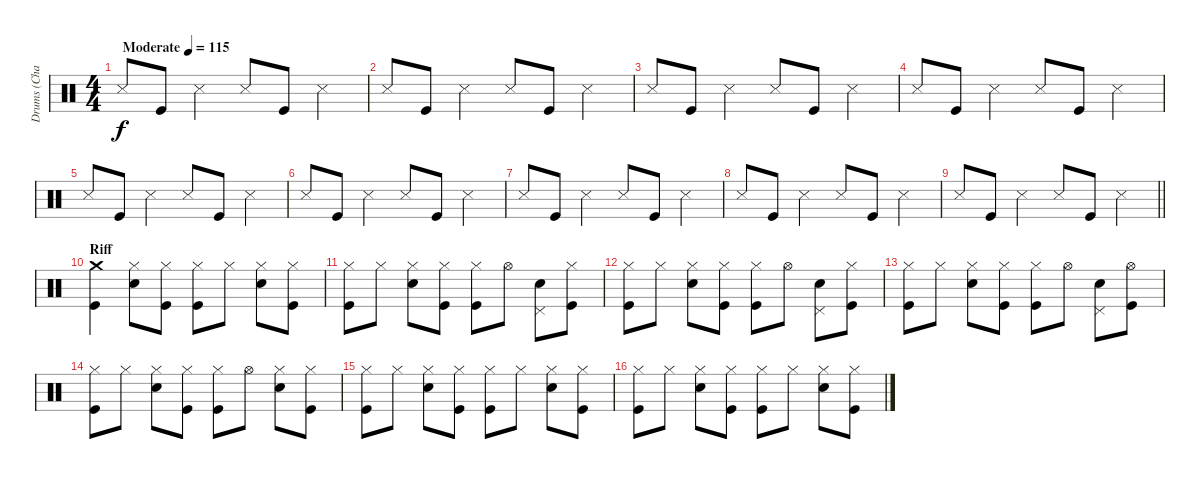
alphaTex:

\track ("Drums (Charlie)" "Drums (Cha") {instrument percussion}
\staff {score}
\articulation defaults
\ts (4 4)
\tempo (115 "Moderate")
\clef neutral
\ks c "Snare (side stick) 3".8{dy f} "Kick (hit)".8 "Snare (side stick) 3".4 "Snare (side stick) 3".8 "Kick (hit)".8 "Snare (side stick) 3".4
|
"Snare (side stick) 3".8 "Kick (hit)".8 "Snare (side stick) 3".4 "Snare (side stick) 3".8 "Kick (hit)".8 "Snare (side stick) 3".4 |
"Snare (side stick) 3".8 "Kick (hit)".8 "Snare (side stick) 3".4 "Snare (side stick) 3".8 "Kick (hit)".8 "Snare (side stick) 3".4 |
"Snare (side stick) 3".8 "Kick (hit)".8 "Snare (side stick) 3".4 "Snare (side stick) 3".8 "Kick (hit)".8 "Snare (side stick) 3".4 |
"Snare (side stick) 3".8 "Kick (hit)".8 "Snare (side stick) 3".4 "Snare (side stick) 3".8 "Kick (hit)".8 "Snare (side stick) 3".4 |
"Snare (side stick) 3".8 "Kick (hit)".8 "Snare (side stick) 3".4 "Snare (side stick) 3".8 "Kick (hit)".8 "Snare (side stick) 3".4 |
"Snare (side stick) 3".8 "Kick (hit)".8 "Snare (side stick) 3".4 "Snare (side stick) 3".8 "Kick (hit)".8 "Snare (side stick) 3".4 |
"Snare (side stick) 3".8 "Kick (hit)".8 "Snare (side stick) 3".4 "Snare (side stick) 3".8 "Kick (hit)".8 "Snare (side stick) 3".4 |
\barLineRight lightlight "Snare (side stick) 3".8 "Kick (hit)".8 "Snare (side stick) 3".4 "Snare (side stick) 3".8 "Kick (hit)".8 "Snare (side stick) 3".4
|
\section ("" "Riff")
("Crash medium (hit)" "Kick (hit)").4 ("Hi-Hat (closed)" "Electric Snare (hit)").8 ("Hi-Hat (closed)" "Kick (hit)").8 ("Hi-Hat (closed)" "Kick (hit)").8 "Hi-Hat (closed)".8 ("Hi-Hat (closed)" "Electric Snare (hit)").8 ("Hi-Hat (closed)" "Kick (hit)").8 |
("Hi-Hat (closed)" "Kick (hit)").8 "Hi-Hat (closed)".8 ("Hi-Hat (closed)" "Electric Snare (hit)").8 ("Hi-Hat (closed)" "Kick (hit)").8 ("Hi-Hat (closed)" "Kick (hit)").8 "Hi-Hat (open)".8 ("Pedal Hi-Hat (hit)" "Electric Snare (hit)").8 ("Hi-Hat (closed)" "Kick (hit)").8 |
("Hi-Hat (closed)" "Kick (hit)").8 "Hi-Hat (closed)".8 ("Hi-Hat (closed)" "Electric Snare (hit)").8 ("Hi-Hat (closed)" "Kick (hit)").8 ("Hi-Hat (closed)" "Kick (hit)").8 "Hi-Hat (open)".8 ("Pedal Hi-Hat (hit)" "Electric Snare (hit)").8 ("Hi-Hat (closed)" "Kick (hit)").8 |
("Hi-Hat (closed)" "Kick (hit)").8 "Hi-Hat (closed)".8 ("Hi-Hat (closed)" "Electric Snare (hit)").8 ("Hi-Hat (closed)" "Kick (hit)").8 ("Hi-Hat (closed)" "Kick (hit)").8 "Hi-Hat (open)".8 ("Pedal Hi-Hat (hit)" "Electric Snare (hit)").8 ("Hi-Hat (open)" "Kick (hit)").8 |
("Hi-Hat (closed)" "Kick (hit)").8 "Hi-Hat (closed)".8 ("Hi-Hat (closed)" "Electric Snare (hit)").8 ("Hi-Hat (closed)" "Kick (hit)").8 ("Hi-Hat (closed)" "Kick (hit)").8 "Hi-Hat (open)".8 ("Hi-Hat (closed)" "Electric Snare (hit)").8 ("Hi-Hat (closed)" "Kick (hit)").8 |
("Hi-Hat (closed)" "Kick (hit)").8 "Hi-Hat (closed)".8 ("Hi-Hat (closed)" "Electric Snare (hit)").8 ("Hi-Hat (closed)" "Kick (hit)").8 ("Hi-Hat (closed)" "Kick (hit)").8 "Hi-Hat (closed)".8 ("Hi-Hat (closed)" "Electric Snare (hit)").8 ("Hi-Hat (closed)" "Kick (hit)").8 |
("Hi-Hat (closed)" "Kick (hit)").8 "Hi-Hat (closed)".8 ("Hi-Hat (closed)" "Electric Snare (hit)").8 ("Hi-Hat (closed)" "Kick (hit)").8 ("Hi-Hat (closed)" "Kick (hit)").8 "Hi-Hat (closed)".8 ("Hi-Hat (closed)" "Electric Snare (hit)").8 ("Hi-Hat (closed)" "Kick (hit)").8
